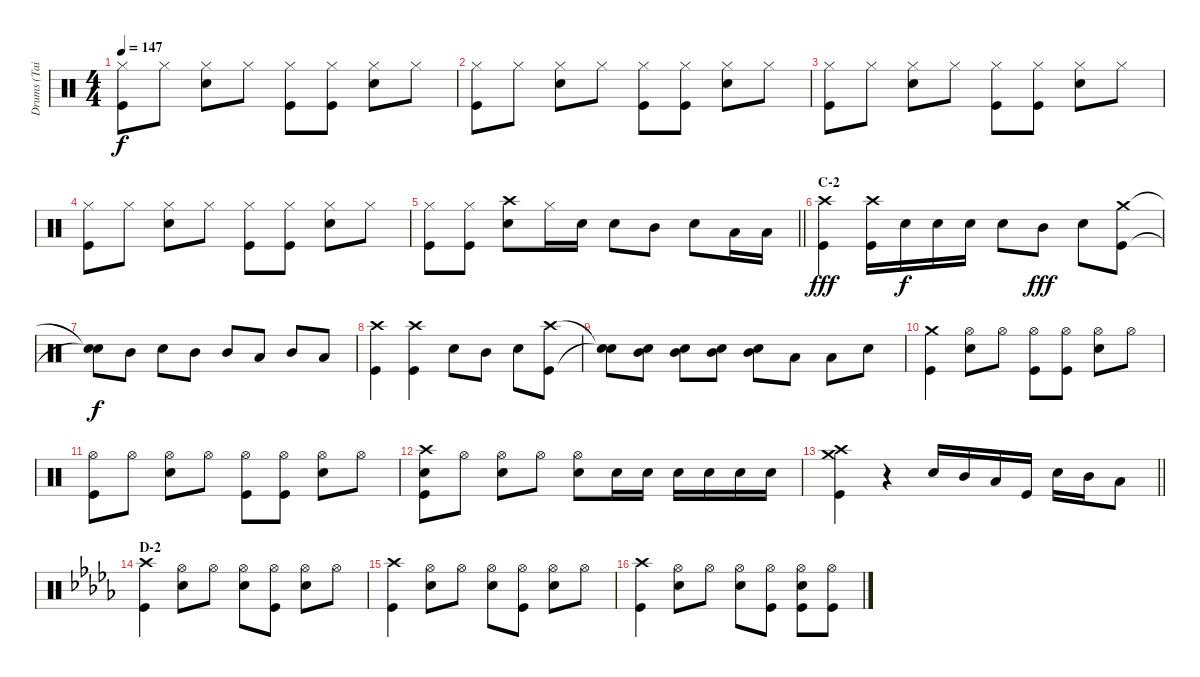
\track ("Drums (Tainaka Ritsu)" "Drums (Tai") {instrument percussion}
\staff {score}
\articulation defaults
\ts (4 4)
\tempo 147
\clef neutral
\ks c
("Hi-Hat (closed)" "Kick (hit)").8{dy f} "Hi-Hat (closed)".8 ("Hi-Hat (closed)" "Snare (hit) 2").8 "Hi-Hat (closed)".8 ("Hi-Hat (closed)" "Kick (hit)").8 ("Hi-Hat (closed)" "Kick (hit)").8 ("Hi-Hat (closed)" "Snare (hit) 2").8 "Hi-Hat (closed)".8 |
("Hi-Hat (closed)" "Kick (hit)").8 "Hi-Hat (closed)".8 ("Hi-Hat (closed)" "Snare (hit) 2").8 "Hi-Hat (closed)".8 ("Hi-Hat (closed)" "Kick (hit)").8 ("Hi-Hat (closed)" "Kick (hit)").8 ("Hi-Hat (closed)" "Snare (hit) 2").8 "Hi-Hat (closed)".8 |
("Hi-Hat (closed)" "Kick (hit)").8 "Hi-Hat (closed)".8 ("Hi-Hat (closed)" "Snare (hit) 2").8 "Hi-Hat (closed)".8 ("Hi-Hat (closed)" "Kick (hit)").8 ("Hi-Hat (closed)" "Kick (hit)").8 ("Hi-Hat (closed)" "Snare (hit) 2").8 "Hi-Hat (closed)".8 |
("Hi-Hat (closed)" "Kick (hit)").8 "Hi-Hat (closed)".8 ("Hi-Hat (closed)" "Snare (hit) 2").8 "Hi-Hat (closed)".8 ("Hi-Hat (closed)" "Kick (hit)").8 ("Hi-Hat (closed)" "Kick (hit)").8 ("Hi-Hat (closed)" "Snare (hit) 2").8 "Hi-Hat (closed)".8 |
\barLineRight lightlight
("Hi-Hat (closed)" "Kick (hit)").8 ("Hi-Hat (closed)" "Kick (hit)").8 ("Crash high (hit)" "Snare (hit) 2").8 "Hi-Hat (closed)".16 "Snare (hit) 2".16 "Snare (hit) 2".8 "Mid Tom (hit)".8 "Snare (hit) 2".8 "Low Tom (hit)".16 "Low Tom (hit)".16 |
\section ("" "C-2")
("Crash high (hit)" "Kick (hit)").4{dy fff} ("Crash high (hit)" "Kick (hit)").16 "Snare (hit) 2".16{dy f} "Snare (hit) 2".16 "Snare (hit) 2".16 "Snare (hit) 2".8 "Mid Tom (hit)".8{dy fff} "Snare (hit) 2".8 ("Crash medium (hit)" "Kick (hit)").8 |
("Snare (hit)"{t} "Snare (hit)"{t}).8{dy f} "Mid Tom (hit)".8 "Snare (hit) 2".8 "Mid Tom (hit)".8 "Mid Tom (hit)".8 "Low Tom (hit)".8 "Mid Tom (hit)".8 "Low Tom (hit)".8 |
("Crash high (hit)" "Kick (hit)").4 ("Crash high (hit)" "Kick (hit)").4 "Snare (hit) 2".8 "Mid Tom (hit)".8 "Snare (hit) 2".8 ("Crash high (hit)" "Kick (hit)").8 |
("Snare (hit)"{t} "Snare (hit)"{t}).8 ("Mid Tom (hit)" "Snare (hit) 2").8 ("Mid Tom (hit)" "Snare (hit) 2").8 ("Mid Tom (hit)" "Snare (hit) 2").8 ("Mid Tom (hit)" "Snare (hit) 2").8 "Low Tom (hit)".8 "Low Tom (hit)".8 "Snare (hit) 2".8 |
("Crash medium (hit)" "Kick (hit)").4 ("Hi-Hat (open)" "Snare (hit) 2").8 "Hi-Hat (open)".8 ("Hi-Hat (open)" "Kick (hit)").8 ("Hi-Hat (open)" "Kick (hit)").8 ("Hi-Hat (open)" "Snare (hit) 2").8 "Hi-Hat (open)".8 |
("Hi-Hat (open)" "Kick (hit)").8 "Hi-Hat (open)".8 ("Hi-Hat (open)" "Snare (hit) 2").8 "Hi-Hat (open)".8 ("Hi-Hat (open)" "Kick (hit)").8 ("Hi-Hat (open)" "Kick (hit)").8 ("Hi-Hat (open)" "Snare (hit) 2").8 "Hi-Hat (open)".8 |
("Crash high (hit)" "Snare (hit) 2" "Kick (hit)").8 "Hi-Hat (open)".8 ("Hi-Hat (open)" "Snare (hit) 2").8 "Hi-Hat (open)".8 ("Hi-Hat (open)" "Snare (hit) 2").8 "Snare (hit) 2".16 "Snare (hit) 2".16 "Snare (hit) 2".16 "Snare (hit) 2".16 "Snare (hit) 2".16 "Snare (hit) 2".16 |
\barLineRight lightlight
("Crash medium (hit)" "Crash high (hit)" "Kick (hit)").4 r.4 "Snare (hit) 2".16 "Mid Tom (hit)".16 "Low Tom (hit)".16 "Kick (hit)".16 "Snare (hit) 2".16 "Mid Tom (hit)".16 "Low Tom (hit)".8 |
\section ("" "D-2")
\ks db
("Crash high (hit)" "Kick (hit)").4 ("Hi-Hat (open)" "Snare (hit) 2").8 "Hi-Hat (open)".8 ("Hi-Hat (open)" "Snare (hit) 2").8 ("Hi-Hat (open)" "Kick (hit)").8 ("Hi-Hat (open)" "Snare (hit) 2").8 "Hi-Hat (open)".8 |
("Crash high (hit)" "Kick (hit)").4 ("Hi-Hat (open)" "Snare (hit) 2").8 "Hi-Hat (open)".8 ("Hi-Hat (open)" "Snare (hit) 2").8 ("Hi-Hat (open)" "Kick (hit)").8 ("Hi-Hat (open)" "Snare (hit) 2").8 "Hi-Hat (open)".8 |
("Crash high (hit)" "Kick (hit)").4 ("Hi-Hat (open)" "Snare (hit) 2").8 "Hi-Hat (open)".8 ("Hi-Hat (open)" "Snare (hit) 2").8 ("Hi-Hat (open)" "Kick (hit)").8 ("Hi-Hat (open)" "Snare (hit) 2" "Kick (hit)").8 ("Hi-Hat (open)" "Kick (hit)").8
